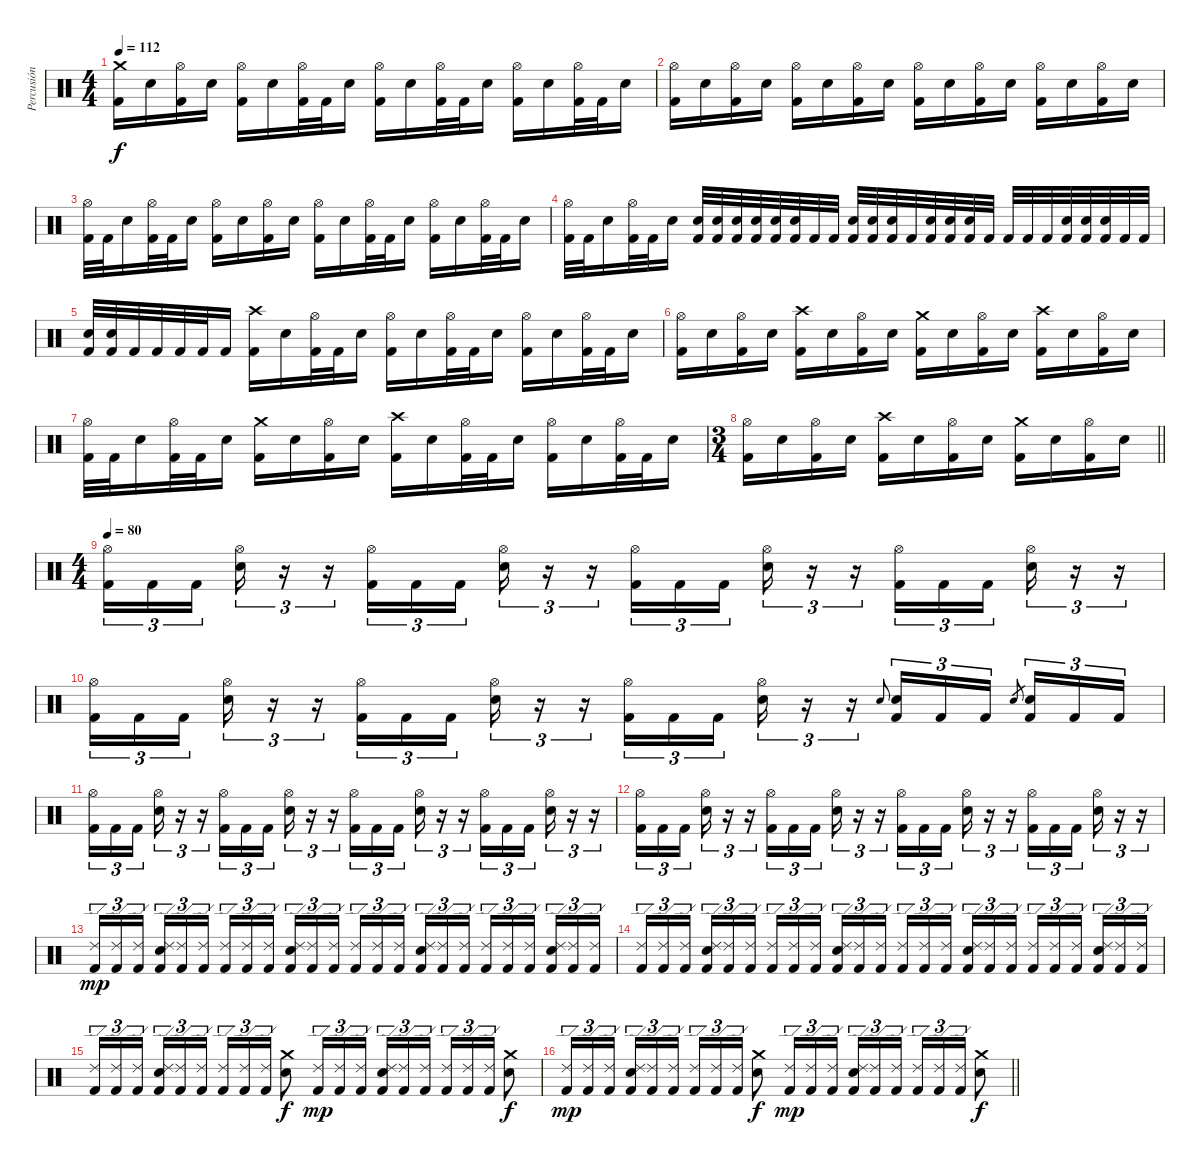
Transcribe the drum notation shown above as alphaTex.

\track ("Percusión" "Percusión") {instrument percussion}
\staff {score}
\articulation defaults
\ts (4 4)
\tempo 112
\clef neutral
\ks c
("Kick (hit) 2" "Crash medium (hit)").16{dy f} "Electric Snare (hit)".16 ("Hi-Hat (open)" "Kick (hit) 2").16 "Electric Snare (hit)".16 ("Hi-Hat (open)" "Kick (hit) 2").16 "Electric Snare (hit)".16 ("Hi-Hat (open)" "Kick (hit) 2").32 "Kick (hit) 2".32 "Electric Snare (hit)".16 ("Hi-Hat (open)" "Kick (hit) 2").16 "Electric Snare (hit)".16 ("Hi-Hat (open)" "Kick (hit) 2").32 "Kick (hit) 2".32 "Electric Snare (hit)".16 ("Hi-Hat (open)" "Kick (hit) 2").16 "Electric Snare (hit)".16 ("Hi-Hat (open)" "Kick (hit) 2").32 "Kick (hit) 2".32 "Electric Snare (hit)".16 |
("Hi-Hat (open)" "Kick (hit) 2").16 "Electric Snare (hit)".16 ("Hi-Hat (open)" "Kick (hit) 2").16 "Electric Snare (hit)".16 ("Hi-Hat (open)" "Kick (hit) 2").16 "Electric Snare (hit)".16 ("Hi-Hat (open)" "Kick (hit) 2").16 "Electric Snare (hit)".16 ("Hi-Hat (open)" "Kick (hit) 2").16 "Electric Snare (hit)".16 ("Hi-Hat (open)" "Kick (hit) 2").16 "Electric Snare (hit)".16 ("Hi-Hat (open)" "Kick (hit) 2").16 "Electric Snare (hit)".16 ("Hi-Hat (open)" "Kick (hit) 2").16 "Electric Snare (hit)".16 |
("Hi-Hat (open)" "Kick (hit) 2").32 "Kick (hit) 2".32 "Electric Snare (hit)".16 ("Hi-Hat (open)" "Kick (hit) 2").32 "Kick (hit) 2".32 "Electric Snare (hit)".16 ("Hi-Hat (open)" "Kick (hit) 2").16 "Electric Snare (hit)".16 ("Hi-Hat (open)" "Kick (hit) 2").16 "Electric Snare (hit)".16 ("Hi-Hat (open)" "Kick (hit) 2").16 "Electric Snare (hit)".16 ("Hi-Hat (open)" "Kick (hit) 2").32 "Kick (hit) 2".32 "Electric Snare (hit)".16 ("Hi-Hat (open)" "Kick (hit) 2").16 "Electric Snare (hit)".16 ("Hi-Hat (open)" "Kick (hit) 2").32 "Kick (hit) 2".32 "Electric Snare (hit)".16 |
("Hi-Hat (open)" "Kick (hit) 2").32 "Kick (hit) 2".32 "Electric Snare (hit)".16 ("Hi-Hat (open)" "Kick (hit) 2").32 "Kick (hit) 2".32 "Electric Snare (hit)".16 ("Electric Snare (hit)" "Kick (hit) 2").32 ("Electric Snare (hit)" "Kick (hit) 2").32 ("Electric Snare (hit)" "Kick (hit) 2").32 ("Electric Snare (hit)" "Kick (hit) 2").32 ("Electric Snare (hit)" "Kick (hit) 2").32 ("Electric Snare (hit)" "Kick (hit) 2").32 "Kick (hit) 2".32 "Kick (hit) 2".32 ("Electric Snare (hit)" "Kick (hit) 2").32 ("Electric Snare (hit)" "Kick (hit) 2").32 ("Electric Snare (hit)" "Kick (hit) 2").32 "Kick (hit) 2".32 ("Electric Snare (hit)" "Kick (hit) 2").32 ("Electric Snare (hit)" "Kick (hit) 2").32 ("Electric Snare (hit)" "Kick (hit) 2").32 "Kick (hit) 2".32 "Kick (hit) 2".32 "Kick (hit) 2".32 "Kick (hit) 2".32 ("Electric Snare (hit)" "Kick (hit) 2").32 ("Electric Snare (hit)" "Kick (hit) 2").32 ("Electric Snare (hit)" "Kick (hit) 2").32 "Kick (hit) 2".32 "Kick (hit) 2".32 |
("Electric Snare (hit)" "Kick (hit) 2").32 ("Electric Snare (hit)" "Kick (hit) 2").32 "Kick (hit) 2".32 "Kick (hit) 2".32 "Kick (hit) 2".32 "Kick (hit) 2".32 "Kick (hit) 2".16 ("Kick (hit) 2" "Crash high (hit)").16 "Electric Snare (hit)".16 ("Hi-Hat (open)" "Kick (hit) 2").32 "Kick (hit) 2".32 "Electric Snare (hit)".16 ("Hi-Hat (open)" "Kick (hit) 2").16 "Electric Snare (hit)".16 ("Hi-Hat (open)" "Kick (hit) 2").32 "Kick (hit) 2".32 "Electric Snare (hit)".16 ("Hi-Hat (open)" "Kick (hit) 2").16 "Electric Snare (hit)".16 ("Hi-Hat (open)" "Kick (hit) 2").32 "Kick (hit) 2".32 "Electric Snare (hit)".16 |
("Hi-Hat (open)" "Kick (hit) 2").16 "Electric Snare (hit)".16 ("Hi-Hat (open)" "Kick (hit) 2").16 "Electric Snare (hit)".16 ("Kick (hit) 2" "Crash high (hit)").16 "Electric Snare (hit)".16 ("Hi-Hat (open)" "Kick (hit) 2").16 "Electric Snare (hit)".16 ("Kick (hit) 2" "Crash medium (hit)").16 "Electric Snare (hit)".16 ("Hi-Hat (open)" "Kick (hit) 2").16 "Electric Snare (hit)".16 ("Kick (hit) 2" "Crash high (hit)").16 "Electric Snare (hit)".16 ("Hi-Hat (open)" "Kick (hit) 2").16 "Electric Snare (hit)".16 |
("Hi-Hat (open)" "Kick (hit) 2").32 "Kick (hit) 2".32 "Electric Snare (hit)".16 ("Hi-Hat (open)" "Kick (hit) 2").32 "Kick (hit) 2".32 "Electric Snare (hit)".16 ("Kick (hit) 2" "Crash medium (hit)").16 "Electric Snare (hit)".16 ("Hi-Hat (open)" "Kick (hit) 2").16 "Electric Snare (hit)".16 ("Kick (hit) 2" "Crash high (hit)").16 "Electric Snare (hit)".16 ("Hi-Hat (open)" "Kick (hit) 2").32 "Kick (hit) 2".32 "Electric Snare (hit)".16 ("Hi-Hat (open)" "Kick (hit) 2").16 "Electric Snare (hit)".16 ("Hi-Hat (open)" "Kick (hit) 2").32 "Kick (hit) 2".32 "Electric Snare (hit)".16 |
\ts (3 4)
\barLineRight lightlight
("Hi-Hat (open)" "Kick (hit) 2").16 "Electric Snare (hit)".16 ("Hi-Hat (open)" "Kick (hit) 2").16 "Electric Snare (hit)".16 ("Kick (hit) 2" "Crash high (hit)").16 "Electric Snare (hit)".16 ("Hi-Hat (open)" "Kick (hit) 2").16 "Electric Snare (hit)".16 ("Kick (hit) 2" "Crash medium (hit)").16 "Electric Snare (hit)".16 ("Hi-Hat (open)" "Kick (hit) 2").16 "Electric Snare (hit)".16 |
\ts (4 4)
\tempo 80
("Hi-Hat (open)" "Kick (hit) 2").16{tu (3 2)} "Kick (hit) 2".16{tu (3 2)} "Kick (hit) 2".16{tu (3 2) beam splitsecondary} ("Hi-Hat (open)" "Electric Snare (hit)").16{tu (3 2)} r.16{tu (3 2)} r.16{tu (3 2)} ("Hi-Hat (open)" "Kick (hit) 2").16{tu (3 2)} "Kick (hit) 2".16{tu (3 2)} "Kick (hit) 2".16{tu (3 2) beam splitsecondary} ("Hi-Hat (open)" "Electric Snare (hit)").16{tu (3 2)} r.16{tu (3 2)} r.16{tu (3 2)} ("Hi-Hat (open)" "Kick (hit) 2").16{tu (3 2)} "Kick (hit) 2".16{tu (3 2)} "Kick (hit) 2".16{tu (3 2) beam splitsecondary} ("Hi-Hat (open)" "Electric Snare (hit)").16{tu (3 2)} r.16{tu (3 2)} r.16{tu (3 2)} ("Hi-Hat (open)" "Kick (hit) 2").16{tu (3 2)} "Kick (hit) 2".16{tu (3 2)} "Kick (hit) 2".16{tu (3 2) beam splitsecondary} ("Hi-Hat (open)" "Electric Snare (hit)").16{tu (3 2)} r.16{tu (3 2)} r.16{tu (3 2)} |
("Hi-Hat (open)" "Kick (hit) 2").16{tu (3 2)} "Kick (hit) 2".16{tu (3 2)} "Kick (hit) 2".16{tu (3 2) beam splitsecondary} ("Hi-Hat (open)" "Electric Snare (hit)").16{tu (3 2)} r.16{tu (3 2)} r.16{tu (3 2)} ("Hi-Hat (open)" "Kick (hit) 2").16{tu (3 2)} "Kick (hit) 2".16{tu (3 2)} "Kick (hit) 2".16{tu (3 2) beam splitsecondary} ("Hi-Hat (open)" "Electric Snare (hit)").16{tu (3 2)} r.16{tu (3 2)} r.16{tu (3 2)} ("Hi-Hat (open)" "Kick (hit) 2").16{tu (3 2)} "Kick (hit) 2".16{tu (3 2)} "Kick (hit) 2".16{tu (3 2) beam splitsecondary} ("Hi-Hat (open)" "Electric Snare (hit)").16{tu (3 2)} r.16{tu (3 2)} r.16{tu (3 2)} "Electric Snare (hit)".8{gr onbeat} ("Electric Snare (hit)" "Kick (hit) 2").16{tu (3 2)} "Kick (hit) 2".16{tu (3 2)} "Kick (hit) 2".16{tu (3 2)} "Electric Snare (hit)".8{gr beam splitsecondary} ("Electric Snare (hit)" "Kick (hit) 2").16{tu (3 2)} "Kick (hit) 2".16{tu (3 2)} "Kick (hit) 2".16{tu (3 2)} |
("Hi-Hat (open)" "Kick (hit) 2").16{tu (3 2)} "Kick (hit) 2".16{tu (3 2)} "Kick (hit) 2".16{tu (3 2) beam splitsecondary} ("Hi-Hat (open)" "Electric Snare (hit)").16{tu (3 2)} r.16{tu (3 2)} r.16{tu (3 2)} ("Hi-Hat (open)" "Kick (hit) 2").16{tu (3 2)} "Kick (hit) 2".16{tu (3 2)} "Kick (hit) 2".16{tu (3 2) beam splitsecondary} ("Hi-Hat (open)" "Electric Snare (hit)").16{tu (3 2)} r.16{tu (3 2)} r.16{tu (3 2)} ("Hi-Hat (open)" "Kick (hit) 2").16{tu (3 2)} "Kick (hit) 2".16{tu (3 2)} "Kick (hit) 2".16{tu (3 2) beam splitsecondary} ("Hi-Hat (open)" "Electric Snare (hit)").16{tu (3 2)} r.16{tu (3 2)} r.16{tu (3 2)} ("Hi-Hat (open)" "Kick (hit) 2").16{tu (3 2)} "Kick (hit) 2".16{tu (3 2)} "Kick (hit) 2".16{tu (3 2) beam splitsecondary} ("Hi-Hat (open)" "Electric Snare (hit)").16{tu (3 2)} r.16{tu (3 2)} r.16{tu (3 2)} |
("Hi-Hat (open)" "Kick (hit) 2").16{tu (3 2)} "Kick (hit) 2".16{tu (3 2)} "Kick (hit) 2".16{tu (3 2) beam splitsecondary} ("Hi-Hat (open)" "Electric Snare (hit)").16{tu (3 2)} r.16{tu (3 2)} r.16{tu (3 2)} ("Hi-Hat (open)" "Kick (hit) 2").16{tu (3 2)} "Kick (hit) 2".16{tu (3 2)} "Kick (hit) 2".16{tu (3 2) beam splitsecondary} ("Hi-Hat (open)" "Electric Snare (hit)").16{tu (3 2)} r.16{tu (3 2)} r.16{tu (3 2)} ("Hi-Hat (open)" "Kick (hit) 2").16{tu (3 2)} "Kick (hit) 2".16{tu (3 2)} "Kick (hit) 2".16{tu (3 2) beam splitsecondary} ("Hi-Hat (open)" "Electric Snare (hit)").16{tu (3 2)} r.16{tu (3 2)} r.16{tu (3 2)} ("Hi-Hat (open)" "Kick (hit) 2").16{tu (3 2)} "Kick (hit) 2".16{tu (3 2)} "Kick (hit) 2".16{tu (3 2) beam splitsecondary} ("Hi-Hat (open)" "Electric Snare (hit)").16{tu (3 2)} r.16{tu (3 2)} r.16{tu (3 2)} |
("Ride (edge) 2" "Kick (hit) 2").16{tu (3 2) dy mp} ("Ride (edge) 2" "Kick (hit) 2").16{tu (3 2)} ("Ride (edge) 2" "Kick (hit) 2").16{tu (3 2) beam splitsecondary} ("Ride (edge) 2" "Electric Snare (hit)" "Kick (hit) 2").16{tu (3 2)} ("Ride (edge) 2" "Kick (hit) 2").16{tu (3 2)} ("Ride (edge) 2" "Kick (hit) 2").16{tu (3 2)} ("Ride (edge) 2" "Kick (hit) 2").16{tu (3 2)} ("Ride (edge) 2" "Kick (hit) 2").16{tu (3 2)} ("Ride (edge) 2" "Kick (hit) 2").16{tu (3 2) beam splitsecondary} ("Ride (edge) 2" "Electric Snare (hit)" "Kick (hit) 2").16{tu (3 2)} ("Ride (edge) 2" "Kick (hit) 2").16{tu (3 2)} ("Ride (edge) 2" "Kick (hit) 2").16{tu (3 2)} ("Ride (edge) 2" "Kick (hit) 2").16{tu (3 2)} ("Ride (edge) 2" "Kick (hit) 2").16{tu (3 2)} ("Ride (edge) 2" "Kick (hit) 2").16{tu (3 2) beam splitsecondary} ("Ride (edge) 2" "Electric Snare (hit)" "Kick (hit) 2").16{tu (3 2)} ("Ride (edge) 2" "Kick (hit) 2").16{tu (3 2)} ("Ride (edge) 2" "Kick (hit) 2").16{tu (3 2)} ("Ride (edge) 2" "Kick (hit) 2").16{tu (3 2)} ("Ride (edge) 2" "Kick (hit) 2").16{tu (3 2)} ("Ride (edge) 2" "Kick (hit) 2").16{tu (3 2) beam splitsecondary} ("Ride (edge) 2" "Electric Snare (hit)" "Kick (hit) 2").16{tu (3 2)} ("Ride (edge) 2" "Kick (hit) 2").16{tu (3 2)} ("Ride (edge) 2" "Kick (hit) 2").16{tu (3 2)} |
("Ride (edge) 2" "Kick (hit) 2").16{tu (3 2)} ("Ride (edge) 2" "Kick (hit) 2").16{tu (3 2)} ("Ride (edge) 2" "Kick (hit) 2").16{tu (3 2) beam splitsecondary} ("Ride (edge) 2" "Electric Snare (hit)" "Kick (hit) 2").16{tu (3 2)} ("Ride (edge) 2" "Kick (hit) 2").16{tu (3 2)} ("Ride (edge) 2" "Kick (hit) 2").16{tu (3 2)} ("Ride (edge) 2" "Kick (hit) 2").16{tu (3 2)} ("Ride (edge) 2" "Kick (hit) 2").16{tu (3 2)} ("Ride (edge) 2" "Kick (hit) 2").16{tu (3 2) beam splitsecondary} ("Ride (edge) 2" "Electric Snare (hit)" "Kick (hit) 2").16{tu (3 2)} ("Ride (edge) 2" "Kick (hit) 2").16{tu (3 2)} ("Ride (edge) 2" "Kick (hit) 2").16{tu (3 2)} ("Ride (edge) 2" "Kick (hit) 2").16{tu (3 2)} ("Ride (edge) 2" "Kick (hit) 2").16{tu (3 2)} ("Ride (edge) 2" "Kick (hit) 2").16{tu (3 2) beam splitsecondary} ("Ride (edge) 2" "Electric Snare (hit)" "Kick (hit) 2").16{tu (3 2)} ("Ride (edge) 2" "Kick (hit) 2").16{tu (3 2)} ("Ride (edge) 2" "Kick (hit) 2").16{tu (3 2)} ("Ride (edge) 2" "Kick (hit) 2").16{tu (3 2)} ("Ride (edge) 2" "Kick (hit) 2").16{tu (3 2)} ("Ride (edge) 2" "Kick (hit) 2").16{tu (3 2) beam splitsecondary} ("Ride (edge) 2" "Electric Snare (hit)" "Kick (hit) 2").16{tu (3 2)} ("Ride (edge) 2" "Kick (hit) 2").16{tu (3 2)} ("Ride (edge) 2" "Kick (hit) 2").16{tu (3 2)} |
("Ride (edge) 2" "Kick (hit) 2").16{tu (3 2)} ("Ride (edge) 2" "Kick (hit) 2").16{tu (3 2)} ("Ride (edge) 2" "Kick (hit) 2").16{tu (3 2) beam splitsecondary} ("Ride (edge) 2" "Electric Snare (hit)" "Kick (hit) 2").16{tu (3 2)} ("Ride (edge) 2" "Kick (hit) 2").16{tu (3 2)} ("Ride (edge) 2" "Kick (hit) 2").16{tu (3 2)} ("Ride (edge) 2" "Kick (hit) 2").16{tu (3 2)} ("Ride (edge) 2" "Kick (hit) 2").16{tu (3 2)} ("Ride (edge) 2" "Kick (hit) 2").16{tu (3 2)} ("Electric Snare (hit)" "Crash medium (hit)").8{dy f} ("Ride (edge) 2" "Kick (hit) 2").16{tu (3 2) dy mp} ("Ride (edge) 2" "Kick (hit) 2").16{tu (3 2)} ("Ride (edge) 2" "Kick (hit) 2").16{tu (3 2) beam splitsecondary} ("Ride (edge) 2" "Electric Snare (hit)" "Kick (hit) 2").16{tu (3 2)} ("Ride (edge) 2" "Kick (hit) 2").16{tu (3 2)} ("Ride (edge) 2" "Kick (hit) 2").16{tu (3 2)} ("Ride (edge) 2" "Kick (hit) 2").16{tu (3 2)} ("Ride (edge) 2" "Kick (hit) 2").16{tu (3 2)} ("Ride (edge) 2" "Kick (hit) 2").16{tu (3 2)} ("Electric Snare (hit)" "Crash medium (hit)").8{dy f} |
\barLineRight lightlight
("Ride (edge) 2" "Kick (hit) 2").16{tu (3 2) dy mp} ("Ride (edge) 2" "Kick (hit) 2").16{tu (3 2)} ("Ride (edge) 2" "Kick (hit) 2").16{tu (3 2) beam splitsecondary} ("Ride (edge) 2" "Electric Snare (hit)" "Kick (hit) 2").16{tu (3 2)} ("Ride (edge) 2" "Kick (hit) 2").16{tu (3 2)} ("Ride (edge) 2" "Kick (hit) 2").16{tu (3 2)} ("Ride (edge) 2" "Kick (hit) 2").16{tu (3 2)} ("Ride (edge) 2" "Kick (hit) 2").16{tu (3 2)} ("Ride (edge) 2" "Kick (hit) 2").16{tu (3 2)} ("Electric Snare (hit)" "Crash medium (hit)").8{dy f} ("Ride (edge) 2" "Kick (hit) 2").16{tu (3 2) dy mp} ("Ride (edge) 2" "Kick (hit) 2").16{tu (3 2)} ("Ride (edge) 2" "Kick (hit) 2").16{tu (3 2) beam splitsecondary} ("Ride (edge) 2" "Electric Snare (hit)" "Kick (hit) 2").16{tu (3 2)} ("Ride (edge) 2" "Kick (hit) 2").16{tu (3 2)} ("Ride (edge) 2" "Kick (hit) 2").16{tu (3 2)} ("Ride (edge) 2" "Kick (hit) 2").16{tu (3 2)} ("Ride (edge) 2" "Kick (hit) 2").16{tu (3 2)} ("Ride (edge) 2" "Kick (hit) 2").16{tu (3 2)} ("Electric Snare (hit)" "Crash medium (hit)").8{dy f}
